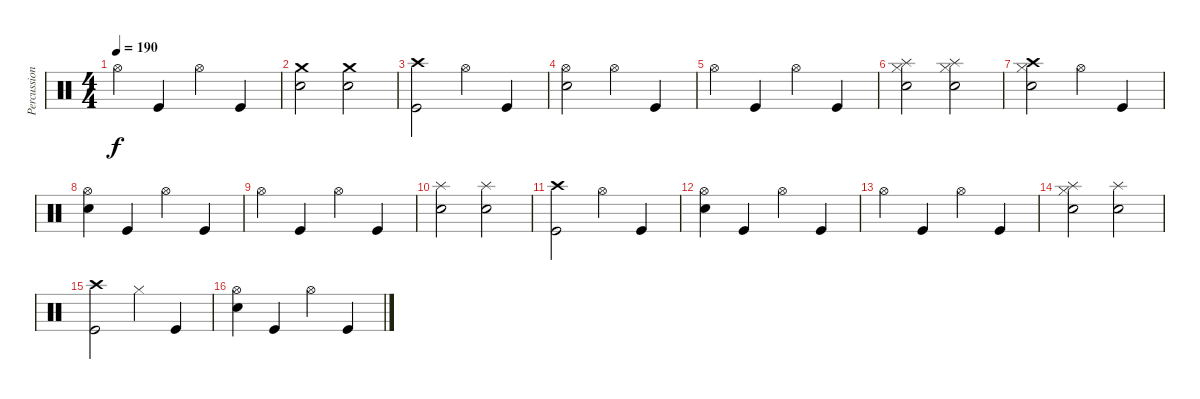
\track ("Percussion" "Percussion") {instrument percussion}
\staff {score}
\articulation defaults
\ts (4 4)
\tempo 190
\clef neutral
\ks c "Hi-Hat (open)".4{dy f} "Kick (hit)".4 "Hi-Hat (open)".4 "Kick (hit)".4
|
("Crash medium (hit)" "Electric Snare (hit)").2 ("Crash medium (hit)" "Electric Snare (hit)").2 |
("Crash high (hit)" "Kick (hit)").2 "Hi-Hat (open)".4 "Kick (hit)".4 |
("Hi-Hat (open)" "Electric Snare (hit)").2 "Hi-Hat (open)".4 "Kick (hit)".4 |
"Hi-Hat (open)".4 "Kick (hit)".4 "Hi-Hat (open)".4 "Kick (hit)".4 |
("Hi-Hat (closed)" "Splash (hit)" "Electric Snare (hit)").2 ("Hi-Hat (closed)" "Splash (hit)" "Electric Snare (hit)").2 |
("Crash high (hit)" "Electric Snare (hit)" "Hi-Hat (closed)").2 "Hi-Hat (open)".4 "Kick (hit)".4 |
("Hi-Hat (open)" "Electric Snare (hit)").4 "Kick (hit)".4 "Hi-Hat (open)".4 "Kick (hit)".4 |
"Hi-Hat (open)".4 "Kick (hit)".4 "Hi-Hat (open)".4 "Kick (hit)".4 |
("Splash (hit)" "Electric Snare (hit)").2 ("Splash (hit)" "Electric Snare (hit)").2 |
("Crash high (hit)" "Kick (hit)").2 "Hi-Hat (open)".4 "Kick (hit)".4 |
("Hi-Hat (open)" "Electric Snare (hit)").4 "Kick (hit)".4 "Hi-Hat (open)".4 "Kick (hit)".4 |
"Hi-Hat (open)".4 "Kick (hit)".4 "Hi-Hat (open)".4 "Kick (hit)".4 |
("Hi-Hat (closed)" "Splash (hit)" "Electric Snare (hit)").2 ("Splash (hit)" "Electric Snare (hit)").2 |
("Crash high (hit)" "Kick (hit)").2 "Hi-Hat (closed)".4 "Kick (hit)".4 |
("Hi-Hat (open)" "Electric Snare (hit)").4 "Kick (hit)".4 "Hi-Hat (open)".4 "Kick (hit)".4
